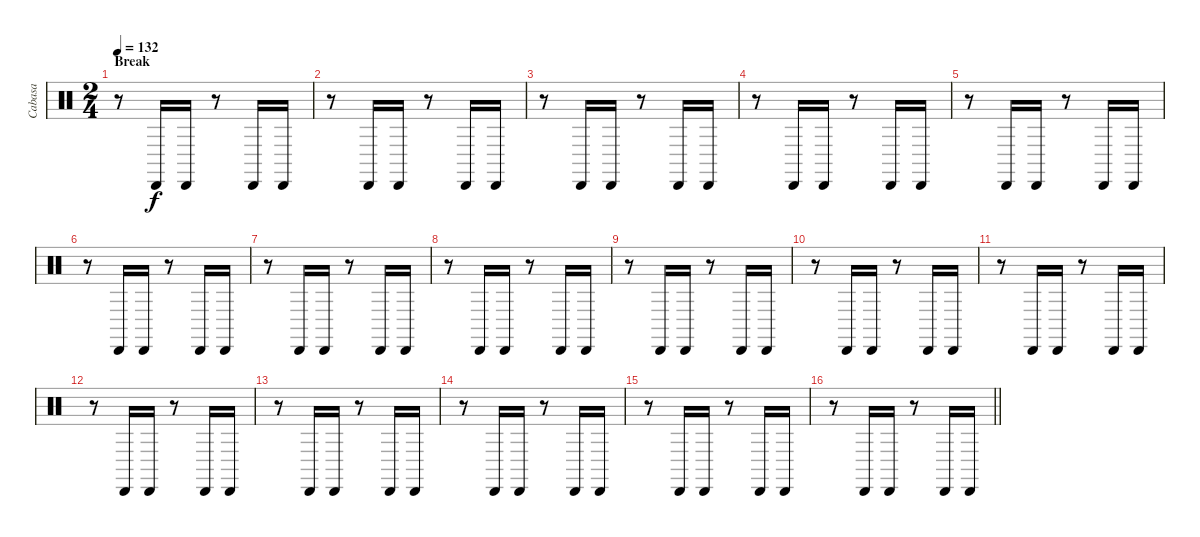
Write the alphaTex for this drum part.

\track ("Cabasa" "Cabasa") {instrument percussion}
\staff {score}
\articulation defaults
\ts (2 4)
\section ("" "Break")
\tempo 132
\clef neutral
\ks c
r.8{dy f} "Cabasa (hit)".16 "Cabasa (hit)".16 r.8 "Cabasa (hit)".16 "Cabasa (hit)".16 |
r.8 "Cabasa (hit)".16 "Cabasa (hit)".16 r.8 "Cabasa (hit)".16 "Cabasa (hit)".16 |
r.8 "Cabasa (hit)".16 "Cabasa (hit)".16 r.8 "Cabasa (hit)".16 "Cabasa (hit)".16 |
r.8 "Cabasa (hit)".16 "Cabasa (hit)".16 r.8 "Cabasa (hit)".16 "Cabasa (hit)".16 |
r.8 "Cabasa (hit)".16 "Cabasa (hit)".16 r.8 "Cabasa (hit)".16 "Cabasa (hit)".16 |
r.8 "Cabasa (hit)".16 "Cabasa (hit)".16 r.8 "Cabasa (hit)".16 "Cabasa (hit)".16 |
r.8 "Cabasa (hit)".16 "Cabasa (hit)".16 r.8 "Cabasa (hit)".16 "Cabasa (hit)".16 |
r.8 "Cabasa (hit)".16 "Cabasa (hit)".16 r.8 "Cabasa (hit)".16 "Cabasa (hit)".16 |
r.8 "Cabasa (hit)".16 "Cabasa (hit)".16 r.8 "Cabasa (hit)".16 "Cabasa (hit)".16 |
r.8 "Cabasa (hit)".16 "Cabasa (hit)".16 r.8 "Cabasa (hit)".16 "Cabasa (hit)".16 |
r.8 "Cabasa (hit)".16 "Cabasa (hit)".16 r.8 "Cabasa (hit)".16 "Cabasa (hit)".16 |
r.8 "Cabasa (hit)".16 "Cabasa (hit)".16 r.8 "Cabasa (hit)".16 "Cabasa (hit)".16 |
r.8 "Cabasa (hit)".16 "Cabasa (hit)".16 r.8 "Cabasa (hit)".16 "Cabasa (hit)".16 |
r.8 "Cabasa (hit)".16 "Cabasa (hit)".16 r.8 "Cabasa (hit)".16 "Cabasa (hit)".16 |
r.8 "Cabasa (hit)".16 "Cabasa (hit)".16 r.8 "Cabasa (hit)".16 "Cabasa (hit)".16 |
\barLineRight lightlight
r.8 "Cabasa (hit)".16 "Cabasa (hit)".16 r.8 "Cabasa (hit)".16 "Cabasa (hit)".16
